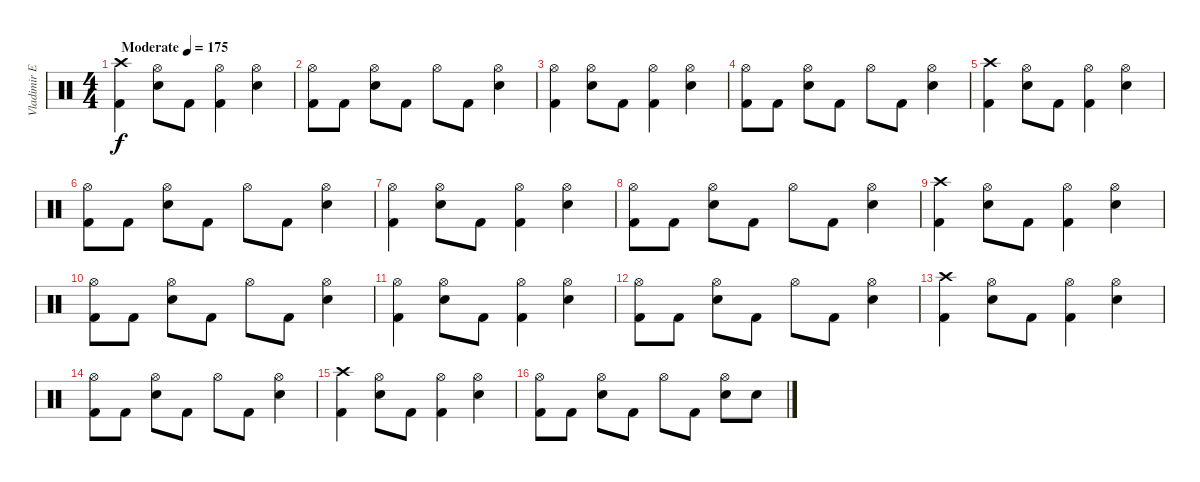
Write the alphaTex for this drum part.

\track ("Vladimir Ermakoff" "Vladimir E") {instrument percussion}
\staff {score}
\articulation defaults
\ts (4 4)
\tempo (175 "Moderate")
\clef neutral
\ks c
("Crash high (hit)" "Kick (hit) 2").4{dy f} ("Hi-Hat (open)" "Electric Snare (hit)").8 "Kick (hit) 2".8 ("Hi-Hat (open)" "Kick (hit) 2").4 ("Hi-Hat (open)" "Electric Snare (hit)").4 |
("Hi-Hat (open)" "Kick (hit) 2").8 "Kick (hit) 2".8 ("Hi-Hat (open)" "Electric Snare (hit)").8 "Kick (hit) 2".8 "Hi-Hat (open)".8 "Kick (hit) 2".8 ("Hi-Hat (open)" "Electric Snare (hit)").4 |
("Hi-Hat (open)" "Kick (hit) 2").4 ("Hi-Hat (open)" "Electric Snare (hit)").8 "Kick (hit) 2".8 ("Hi-Hat (open)" "Kick (hit) 2").4 ("Hi-Hat (open)" "Electric Snare (hit)").4 |
("Hi-Hat (open)" "Kick (hit) 2").8 "Kick (hit) 2".8 ("Hi-Hat (open)" "Electric Snare (hit)").8 "Kick (hit) 2".8 "Hi-Hat (open)".8 "Kick (hit) 2".8 ("Hi-Hat (open)" "Electric Snare (hit)").4 |
("Crash high (hit)" "Kick (hit) 2").4 ("Hi-Hat (open)" "Electric Snare (hit)").8 "Kick (hit) 2".8 ("Hi-Hat (open)" "Kick (hit) 2").4 ("Hi-Hat (open)" "Electric Snare (hit)").4 |
("Hi-Hat (open)" "Kick (hit) 2").8 "Kick (hit) 2".8 ("Hi-Hat (open)" "Electric Snare (hit)").8 "Kick (hit) 2".8 "Hi-Hat (open)".8 "Kick (hit) 2".8 ("Hi-Hat (open)" "Electric Snare (hit)").4 |
("Hi-Hat (open)" "Kick (hit) 2").4 ("Hi-Hat (open)" "Electric Snare (hit)").8 "Kick (hit) 2".8 ("Hi-Hat (open)" "Kick (hit) 2").4 ("Hi-Hat (open)" "Electric Snare (hit)").4 |
("Hi-Hat (open)" "Kick (hit) 2").8 "Kick (hit) 2".8 ("Hi-Hat (open)" "Electric Snare (hit)").8 "Kick (hit) 2".8 "Hi-Hat (open)".8 "Kick (hit) 2".8 ("Hi-Hat (open)" "Electric Snare (hit)").4 |
("Crash high (hit)" "Kick (hit) 2").4 ("Hi-Hat (open)" "Electric Snare (hit)").8 "Kick (hit) 2".8 ("Hi-Hat (open)" "Kick (hit) 2").4 ("Hi-Hat (open)" "Electric Snare (hit)").4 |
("Hi-Hat (open)" "Kick (hit) 2").8 "Kick (hit) 2".8 ("Hi-Hat (open)" "Electric Snare (hit)").8 "Kick (hit) 2".8 "Hi-Hat (open)".8 "Kick (hit) 2".8 ("Hi-Hat (open)" "Electric Snare (hit)").4 |
("Hi-Hat (open)" "Kick (hit) 2").4 ("Hi-Hat (open)" "Electric Snare (hit)").8 "Kick (hit) 2".8 ("Hi-Hat (open)" "Kick (hit) 2").4 ("Hi-Hat (open)" "Electric Snare (hit)").4 |
("Hi-Hat (open)" "Kick (hit) 2").8 "Kick (hit) 2".8 ("Hi-Hat (open)" "Electric Snare (hit)").8 "Kick (hit) 2".8 "Hi-Hat (open)".8 "Kick (hit) 2".8 ("Hi-Hat (open)" "Electric Snare (hit)").4 |
("Crash high (hit)" "Kick (hit) 2").4 ("Hi-Hat (open)" "Electric Snare (hit)").8 "Kick (hit) 2".8 ("Hi-Hat (open)" "Kick (hit) 2").4 ("Hi-Hat (open)" "Electric Snare (hit)").4 |
("Hi-Hat (open)" "Kick (hit) 2").8 "Kick (hit) 2".8 ("Hi-Hat (open)" "Electric Snare (hit)").8 "Kick (hit) 2".8 "Hi-Hat (open)".8 "Kick (hit) 2".8 ("Hi-Hat (open)" "Electric Snare (hit)").4 |
("Crash high (hit)" "Kick (hit) 2").4 ("Hi-Hat (open)" "Electric Snare (hit)").8 "Kick (hit) 2".8 ("Hi-Hat (open)" "Kick (hit) 2").4 ("Hi-Hat (open)" "Electric Snare (hit)").4 |
("Hi-Hat (open)" "Kick (hit) 2").8 "Kick (hit) 2".8 ("Hi-Hat (open)" "Electric Snare (hit)").8 "Kick (hit) 2".8 "Hi-Hat (open)".8 "Kick (hit) 2".8 ("Hi-Hat (open)" "Electric Snare (hit)").8 "Electric Snare (hit)".8
